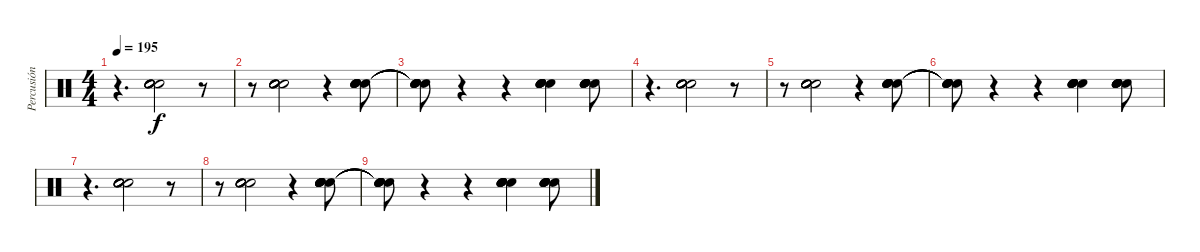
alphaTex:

\track ("Percusión" "Percusión") {instrument percussion}
\staff {score}
\articulation defaults
\ts (4 4)
\tempo 195
\clef neutral
\ks c
r.4{d dy f} ("Hand Clap (hit)" "Hand Clap (hit)" "Hand Clap (hit)" "Hand Clap (hit)" "Hand Clap (hit)" "Hand Clap (hit)").2{bd 120} r.8 |
r.8 ("Hand Clap (hit)" "Hand Clap (hit)" "Hand Clap (hit)" "Hand Clap (hit)" "Hand Clap (hit)" "Hand Clap (hit)").2{bd 120} r.4 ("Hand Clap (hit)" "Hand Clap (hit)" "Hand Clap (hit)" "Hand Clap (hit)" "Hand Clap (hit)" "Hand Clap (hit)").8{bd 120} |
("Snare (hit)"{t} "Snare (hit)"{t} "Snare (hit)"{t} "Snare (hit)"{t} "Snare (hit)"{t} "Snare (hit)"{t}).8 r.4 r.4 ("Hand Clap (hit)" "Hand Clap (hit)" "Hand Clap (hit)" "Hand Clap (hit)" "Hand Clap (hit)" "Hand Clap (hit)").4{bd 120} ("Hand Clap (hit)" "Hand Clap (hit)" "Hand Clap (hit)" "Hand Clap (hit)" "Hand Clap (hit)" "Hand Clap (hit)").8{bd 120} |
r.4{d} ("Hand Clap (hit)" "Hand Clap (hit)" "Hand Clap (hit)" "Hand Clap (hit)" "Hand Clap (hit)" "Hand Clap (hit)").2{bd 120} r.8 |
r.8 ("Hand Clap (hit)" "Hand Clap (hit)" "Hand Clap (hit)" "Hand Clap (hit)" "Hand Clap (hit)" "Hand Clap (hit)").2{bd 120} r.4 ("Hand Clap (hit)" "Hand Clap (hit)" "Hand Clap (hit)" "Hand Clap (hit)" "Hand Clap (hit)" "Hand Clap (hit)").8{bd 120} |
("Snare (hit)"{t} "Snare (hit)"{t} "Snare (hit)"{t} "Snare (hit)"{t} "Snare (hit)"{t} "Snare (hit)"{t}).8 r.4 r.4 ("Hand Clap (hit)" "Hand Clap (hit)" "Hand Clap (hit)" "Hand Clap (hit)" "Hand Clap (hit)" "Hand Clap (hit)").4{bd 120} ("Hand Clap (hit)" "Hand Clap (hit)" "Hand Clap (hit)" "Hand Clap (hit)" "Hand Clap (hit)" "Hand Clap (hit)").8{bd 120} |
r.4{d} ("Hand Clap (hit)" "Hand Clap (hit)" "Hand Clap (hit)" "Hand Clap (hit)" "Hand Clap (hit)" "Hand Clap (hit)").2{bd 120} r.8 |
r.8 ("Hand Clap (hit)" "Hand Clap (hit)" "Hand Clap (hit)" "Hand Clap (hit)" "Hand Clap (hit)" "Hand Clap (hit)").2{bd 120} r.4 ("Hand Clap (hit)" "Hand Clap (hit)" "Hand Clap (hit)" "Hand Clap (hit)" "Hand Clap (hit)" "Hand Clap (hit)").8{bd 120} |
("Snare (hit)"{t} "Snare (hit)"{t} "Snare (hit)"{t} "Snare (hit)"{t} "Snare (hit)"{t} "Snare (hit)"{t}).8 r.4 r.4 ("Hand Clap (hit)" "Hand Clap (hit)" "Hand Clap (hit)" "Hand Clap (hit)" "Hand Clap (hit)" "Hand Clap (hit)").4{bd 120} ("Hand Clap (hit)" "Hand Clap (hit)" "Hand Clap (hit)" "Hand Clap (hit)" "Hand Clap (hit)" "Hand Clap (hit)").8{bd 120}
